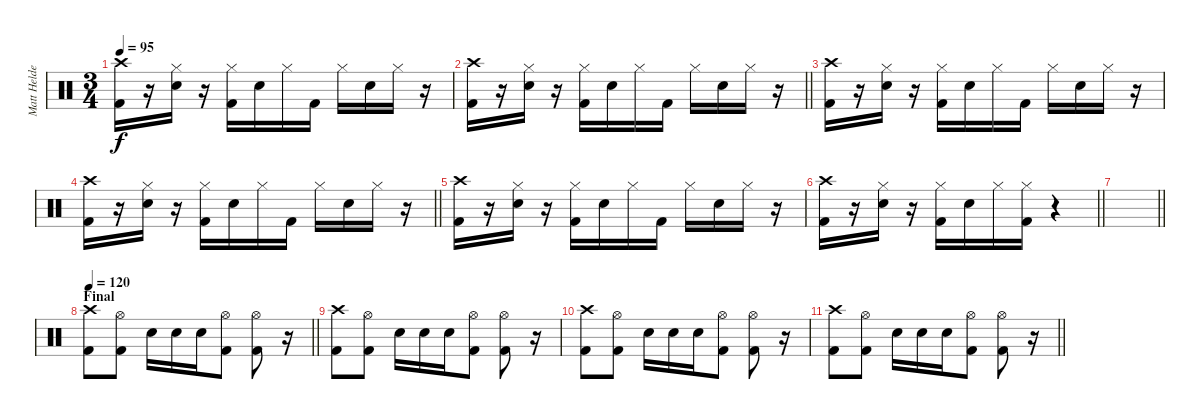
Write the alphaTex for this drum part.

\track ("Matt Helders" "Matt Helde") {instrument percussion}
\staff {score}
\articulation defaults
\ts (3 4)
\tempo 95
\clef neutral
\ks c
("Crash high (hit)" "Kick (hit) 2").16{dy f} r.16 ("Hi-Hat (closed)" "Electric Snare (hit)").16 r.16 ("Hi-Hat (closed)" "Kick (hit) 2").16 "Electric Snare (hit)".16 "Hi-Hat (closed)".16 "Kick (hit) 2".16 "Hi-Hat (closed)".16 "Electric Snare (hit)".16 "Hi-Hat (closed)".16 r.16 |
\barLineRight lightlight
("Crash high (hit)" "Kick (hit) 2").16 r.16 ("Hi-Hat (closed)" "Electric Snare (hit)").16 r.16 ("Hi-Hat (closed)" "Kick (hit) 2").16 "Electric Snare (hit)".16 "Hi-Hat (closed)".16 "Kick (hit) 2".16 "Hi-Hat (closed)".16 "Electric Snare (hit)".16 "Hi-Hat (closed)".16 r.16 |
("Crash high (hit)" "Kick (hit) 2").16 r.16 ("Hi-Hat (closed)" "Electric Snare (hit)").16 r.16 ("Hi-Hat (closed)" "Kick (hit) 2").16 "Electric Snare (hit)".16 "Hi-Hat (closed)".16 "Kick (hit) 2".16 "Hi-Hat (closed)".16 "Electric Snare (hit)".16 "Hi-Hat (closed)".16 r.16 |
\barLineRight lightlight
("Crash high (hit)" "Kick (hit) 2").16 r.16 ("Hi-Hat (closed)" "Electric Snare (hit)").16 r.16 ("Hi-Hat (closed)" "Kick (hit) 2").16 "Electric Snare (hit)".16 "Hi-Hat (closed)".16 "Kick (hit) 2".16 "Hi-Hat (closed)".16 "Electric Snare (hit)".16 "Hi-Hat (closed)".16 r.16 |
("Crash high (hit)" "Kick (hit) 2").16 r.16 ("Hi-Hat (closed)" "Electric Snare (hit)").16 r.16 ("Hi-Hat (closed)" "Kick (hit) 2").16 "Electric Snare (hit)".16 "Hi-Hat (closed)".16 "Kick (hit) 2".16 "Hi-Hat (closed)".16 "Electric Snare (hit)".16 "Hi-Hat (closed)".16 r.16 |
\barLineRight lightlight
("Crash high (hit)" "Kick (hit) 2").16 r.16 ("Hi-Hat (closed)" "Electric Snare (hit)").16 r.16 ("Hi-Hat (closed)" "Kick (hit) 2").16 "Electric Snare (hit)".16 "Hi-Hat (closed)".16 ("Hi-Hat (closed)" "Kick (hit) 2").16 r.4 |
\barLineRight lightlight
|
\section ("" "Final")
\tempo 120
\barLineRight lightlight
("Crash high (hit)" "Kick (hit) 2").8 ("Hi-Hat (open)" "Kick (hit) 2").8 "Electric Snare (hit)".16 "Electric Snare (hit)".16 "Electric Snare (hit)".16 ("Hi-Hat (open)" "Kick (hit) 2").8 ("Hi-Hat (open)" "Kick (hit) 2").8 r.16 |
("Crash high (hit)" "Kick (hit) 2").8 ("Hi-Hat (open)" "Kick (hit) 2").8 "Electric Snare (hit)".16 "Electric Snare (hit)".16 "Electric Snare (hit)".16 ("Hi-Hat (open)" "Kick (hit) 2").8 ("Hi-Hat (open)" "Kick (hit) 2").8 r.16 |
("Crash high (hit)" "Kick (hit) 2").8 ("Hi-Hat (open)" "Kick (hit) 2").8 "Electric Snare (hit)".16 "Electric Snare (hit)".16 "Electric Snare (hit)".16 ("Hi-Hat (open)" "Kick (hit) 2").8 ("Hi-Hat (open)" "Kick (hit) 2").8 r.16 |
\barLineRight lightlight
("Crash high (hit)" "Kick (hit) 2").8 ("Hi-Hat (open)" "Kick (hit) 2").8 "Electric Snare (hit)".16 "Electric Snare (hit)".16 "Electric Snare (hit)".16 ("Hi-Hat (open)" "Kick (hit) 2").8 ("Hi-Hat (open)" "Kick (hit) 2").8 r.16
